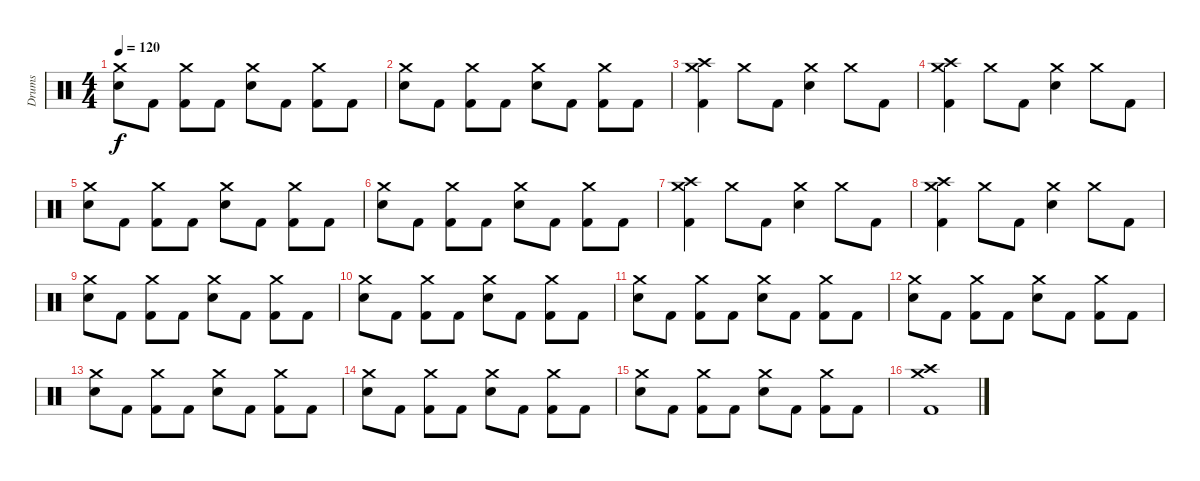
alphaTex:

\track ("Drums" "Drums") {instrument percussion bank 255}
\staff {score}
\articulation defaults
\ts (4 4)
\tempo 120
\clef neutral
\ks c
("Crash medium (hit)" "Electric Snare (hit)").8{dy f} "Kick (hit) 2".8 ("Crash medium (hit)" "Kick (hit) 2").8 "Kick (hit) 2".8 ("Crash medium (hit)" "Electric Snare (hit)").8 "Kick (hit) 2".8 ("Crash medium (hit)" "Kick (hit) 2").8 "Kick (hit) 2".8 |
("Crash medium (hit)" "Electric Snare (hit)").8 "Kick (hit) 2".8 ("Crash medium (hit)" "Kick (hit) 2").8 "Kick (hit) 2".8 ("Crash medium (hit)" "Electric Snare (hit)").8 "Kick (hit) 2".8 ("Crash medium (hit)" "Kick (hit) 2").8 "Kick (hit) 2".8 |
("Crash high (hit)" "Crash medium (hit)" "Kick (hit) 2").4 "Crash medium (hit)".8 "Kick (hit) 2".8 ("Crash medium (hit)" "Electric Snare (hit)").4 "Crash medium (hit)".8 "Kick (hit) 2".8 |
("Crash high (hit)" "Crash medium (hit)" "Kick (hit) 2").4 "Crash medium (hit)".8 "Kick (hit) 2".8 ("Crash medium (hit)" "Electric Snare (hit)").4 "Crash medium (hit)".8 "Kick (hit) 2".8 |
("Crash medium (hit)" "Electric Snare (hit)").8 "Kick (hit) 2".8 ("Crash medium (hit)" "Kick (hit) 2").8 "Kick (hit) 2".8 ("Crash medium (hit)" "Electric Snare (hit)").8 "Kick (hit) 2".8 ("Crash medium (hit)" "Kick (hit) 2").8 "Kick (hit) 2".8 |
("Crash medium (hit)" "Electric Snare (hit)").8 "Kick (hit) 2".8 ("Crash medium (hit)" "Kick (hit) 2").8 "Kick (hit) 2".8 ("Crash medium (hit)" "Electric Snare (hit)").8 "Kick (hit) 2".8 ("Crash medium (hit)" "Kick (hit) 2").8 "Kick (hit) 2".8 |
("Crash high (hit)" "Crash medium (hit)" "Kick (hit) 2").4 "Crash medium (hit)".8 "Kick (hit) 2".8 ("Crash medium (hit)" "Electric Snare (hit)").4 "Crash medium (hit)".8 "Kick (hit) 2".8 |
("Crash high (hit)" "Crash medium (hit)" "Kick (hit) 2").4 "Crash medium (hit)".8 "Kick (hit) 2".8 ("Crash medium (hit)" "Electric Snare (hit)").4 "Crash medium (hit)".8 "Kick (hit) 2".8 |
("Crash medium (hit)" "Electric Snare (hit)").8 "Kick (hit) 2".8 ("Crash medium (hit)" "Kick (hit) 2").8 "Kick (hit) 2".8 ("Crash medium (hit)" "Electric Snare (hit)").8 "Kick (hit) 2".8 ("Crash medium (hit)" "Kick (hit) 2").8 "Kick (hit) 2".8 |
("Crash medium (hit)" "Electric Snare (hit)").8 "Kick (hit) 2".8 ("Crash medium (hit)" "Kick (hit) 2").8 "Kick (hit) 2".8 ("Crash medium (hit)" "Electric Snare (hit)").8 "Kick (hit) 2".8 ("Crash medium (hit)" "Kick (hit) 2").8 "Kick (hit) 2".8 |
("Crash medium (hit)" "Electric Snare (hit)").8 "Kick (hit) 2".8 ("Crash medium (hit)" "Kick (hit) 2").8 "Kick (hit) 2".8 ("Crash medium (hit)" "Electric Snare (hit)").8 "Kick (hit) 2".8 ("Crash medium (hit)" "Kick (hit) 2").8 "Kick (hit) 2".8 |
("Crash medium (hit)" "Electric Snare (hit)").8 "Kick (hit) 2".8 ("Crash medium (hit)" "Kick (hit) 2").8 "Kick (hit) 2".8 ("Crash medium (hit)" "Electric Snare (hit)").8 "Kick (hit) 2".8 ("Crash medium (hit)" "Kick (hit) 2").8 "Kick (hit) 2".8 |
("Crash medium (hit)" "Electric Snare (hit)").8 "Kick (hit) 2".8 ("Crash medium (hit)" "Kick (hit) 2").8 "Kick (hit) 2".8 ("Crash medium (hit)" "Electric Snare (hit)").8 "Kick (hit) 2".8 ("Crash medium (hit)" "Kick (hit) 2").8 "Kick (hit) 2".8 |
("Crash medium (hit)" "Electric Snare (hit)").8 "Kick (hit) 2".8 ("Crash medium (hit)" "Kick (hit) 2").8 "Kick (hit) 2".8 ("Crash medium (hit)" "Electric Snare (hit)").8 "Kick (hit) 2".8 ("Crash medium (hit)" "Kick (hit) 2").8 "Kick (hit) 2".8 |
("Crash medium (hit)" "Electric Snare (hit)").8 "Kick (hit) 2".8 ("Crash medium (hit)" "Kick (hit) 2").8 "Kick (hit) 2".8 ("Crash medium (hit)" "Electric Snare (hit)").8 "Kick (hit) 2".8 ("Crash medium (hit)" "Kick (hit) 2").8 "Kick (hit) 2".8 |
("Crash high (hit)" "Crash medium (hit)" "Kick (hit) 2").1{volume 0}
